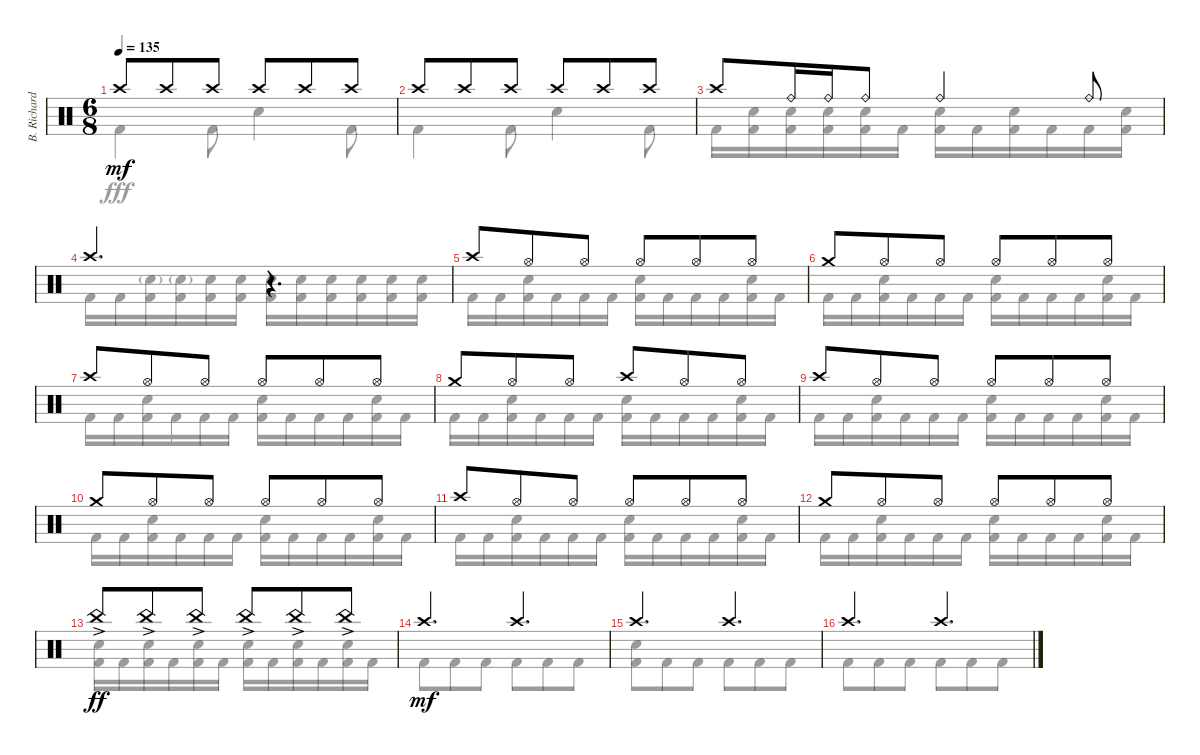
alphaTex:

\track ("B. Richardson Drums" "B. Richard") {instrument percussion}
\staff {score}
\articulation defaults
\voice
\ts (6 8)
\tempo 135
\clef neutral
\ks c "Crash high (hit)".8{dy mf} "Crash high (hit)".8 "Crash high (hit)".8 "Crash high (hit)".8 "Crash high (hit)".8 "Crash high (hit)".8
|
"Crash high (hit)".8 "Crash high (hit)".8 "Crash high (hit)".8 "Crash high (hit)".8 "Crash high (hit)".8 "Crash high (hit)".8 |
"Crash high (hit)".8 "Ride (bell)".16 "Ride (bell)".16 "Ride (bell)".8 "Ride (bell)".4 "Ride (bell)".8 |
"Crash high (hit)".4{d} r.4{d} |
"Crash high (hit)".8 "Hi-Hat (open)".8 "Hi-Hat (open)".8 "Hi-Hat (open)".8 "Hi-Hat (open)".8 "Hi-Hat (open)".8 |
"Crash medium (hit)".8 "Hi-Hat (open)".8 "Hi-Hat (open)".8 "Hi-Hat (open)".8 "Hi-Hat (open)".8 "Hi-Hat (open)".8 |
"Crash high (hit)".8 "Hi-Hat (open)".8 "Hi-Hat (open)".8 "Hi-Hat (open)".8 "Hi-Hat (open)".8 "Hi-Hat (open)".8 |
"Crash medium (hit)".8 "Hi-Hat (open)".8 "Hi-Hat (open)".8 "Crash high (hit)".8 "Hi-Hat (open)".8 "Hi-Hat (open)".8 |
"Crash high (hit)".8 "Hi-Hat (open)".8 "Hi-Hat (open)".8 "Hi-Hat (open)".8 "Hi-Hat (open)".8 "Hi-Hat (open)".8 |
"Crash medium (hit)".8 "Hi-Hat (open)".8 "Hi-Hat (open)".8 "Hi-Hat (open)".8 "Hi-Hat (open)".8 "Hi-Hat (open)".8 |
"Crash high (hit)".8 "Hi-Hat (open)".8 "Hi-Hat (open)".8 "Hi-Hat (open)".8 "Hi-Hat (open)".8 "Hi-Hat (open)".8 |
"Crash medium (hit)".8 "Hi-Hat (open)".8 "Hi-Hat (open)".8 "Hi-Hat (open)".8 "Hi-Hat (open)".8 "Hi-Hat (open)".8 |
"China (hit)"{ac}.8{dy ff} "China (hit)"{ac}.8 "China (hit)"{ac}.8 "China (hit)"{ac}.8 "China (hit)"{ac}.8 "China (hit)"{ac}.8 |
"Crash high (hit)".4{d dy mf} "Crash high (hit)".4{d} |
"Crash high (hit)".4{d} "Crash high (hit)".4{d} |
"Crash high (hit)".4{d} "Crash high (hit)".4{d}
\voice
\clef neutral
\ottava regular
\simile none
\ks c "Kick (hit) 2".4{dy fff} "Kick (hit) 2".8 "Electric Snare (hit)".4 "Kick (hit) 2".8
|
"Kick (hit) 2".4 "Kick (hit) 2".8 "Electric Snare (hit)".4 "Kick (hit) 2".8 |
"Kick (hit) 2".16 ("Electric Snare (hit)" "Kick (hit) 2").16 ("Electric Snare (hit)" "Kick (hit) 2").16 ("Electric Snare (hit)" "Kick (hit) 2").16 ("Electric Snare (hit)" "Kick (hit) 2").16 "Kick (hit) 2".16 ("Electric Snare (hit)" "Kick (hit) 2").16 "Kick (hit) 2".16 ("Electric Snare (hit)" "Kick (hit) 2").16 "Kick (hit) 2".16 "Kick (hit) 2".16 ("Electric Snare (hit)" "Kick (hit) 2").16 |
"Kick (hit) 2".16 "Kick (hit) 2".16 ("Electric Snare (hit)"{g} "Kick (hit) 2").16 ("Electric Snare (hit)"{g} "Kick (hit) 2").16 ("Electric Snare (hit)" "Kick (hit) 2").16 ("Electric Snare (hit)" "Kick (hit) 2").16 ("Electric Snare (hit)" "Kick (hit) 2").16 ("Electric Snare (hit)" "Kick (hit) 2").16 ("Electric Snare (hit)" "Kick (hit) 2").16 ("Electric Snare (hit)" "Kick (hit) 2").16 ("Electric Snare (hit)" "Kick (hit) 2").16 ("Electric Snare (hit)" "Kick (hit) 2").16 |
"Kick (hit) 2".16 "Kick (hit) 2".16 ("Electric Snare (hit)" "Kick (hit) 2").16 "Kick (hit) 2".16 "Kick (hit) 2".16 "Kick (hit) 2".16 ("Electric Snare (hit)" "Kick (hit) 2").16 "Kick (hit) 2".16 "Kick (hit) 2".16 "Kick (hit) 2".16 ("Electric Snare (hit)" "Kick (hit) 2").16 "Kick (hit) 2".16 |
"Kick (hit) 2".16 "Kick (hit) 2".16 ("Electric Snare (hit)" "Kick (hit) 2").16 "Kick (hit) 2".16 "Kick (hit) 2".16 "Kick (hit) 2".16 ("Electric Snare (hit)" "Kick (hit) 2").16 "Kick (hit) 2".16 "Kick (hit) 2".16 "Kick (hit) 2".16 ("Electric Snare (hit)" "Kick (hit) 2").16 "Kick (hit) 2".16 |
"Kick (hit) 2".16 "Kick (hit) 2".16 ("Electric Snare (hit)" "Kick (hit) 2").16 "Kick (hit) 2".16 "Kick (hit) 2".16 "Kick (hit) 2".16 ("Electric Snare (hit)" "Kick (hit) 2").16 "Kick (hit) 2".16 "Kick (hit) 2".16 "Kick (hit) 2".16 ("Electric Snare (hit)" "Kick (hit) 2").16 "Kick (hit) 2".16 |
"Kick (hit) 2".16 "Kick (hit) 2".16 ("Electric Snare (hit)" "Kick (hit) 2").16 "Kick (hit) 2".16 "Kick (hit) 2".16 "Kick (hit) 2".16 ("Electric Snare (hit)" "Kick (hit) 2").16 "Kick (hit) 2".16 "Kick (hit) 2".16 "Kick (hit) 2".16 ("Electric Snare (hit)" "Kick (hit) 2").16 "Kick (hit) 2".16 |
"Kick (hit) 2".16 "Kick (hit) 2".16 ("Electric Snare (hit)" "Kick (hit) 2").16 "Kick (hit) 2".16 "Kick (hit) 2".16 "Kick (hit) 2".16 ("Electric Snare (hit)" "Kick (hit) 2").16 "Kick (hit) 2".16 "Kick (hit) 2".16 "Kick (hit) 2".16 ("Electric Snare (hit)" "Kick (hit) 2").16 "Kick (hit) 2".16 |
"Kick (hit) 2".16 "Kick (hit) 2".16 ("Electric Snare (hit)" "Kick (hit) 2").16 "Kick (hit) 2".16 "Kick (hit) 2".16 "Kick (hit) 2".16 ("Electric Snare (hit)" "Kick (hit) 2").16 "Kick (hit) 2".16 "Kick (hit) 2".16 "Kick (hit) 2".16 ("Electric Snare (hit)" "Kick (hit) 2").16 "Kick (hit) 2".16 |
"Kick (hit) 2".16 "Kick (hit) 2".16 ("Electric Snare (hit)" "Kick (hit) 2").16 "Kick (hit) 2".16 "Kick (hit) 2".16 "Kick (hit) 2".16 ("Electric Snare (hit)" "Kick (hit) 2").16 "Kick (hit) 2".16 "Kick (hit) 2".16 "Kick (hit) 2".16 ("Electric Snare (hit)" "Kick (hit) 2").16 "Kick (hit) 2".16 |
"Kick (hit) 2".16 "Kick (hit) 2".16 ("Electric Snare (hit)" "Kick (hit) 2").16 "Kick (hit) 2".16 "Kick (hit) 2".16 "Kick (hit) 2".16 ("Electric Snare (hit)" "Kick (hit) 2").16 "Kick (hit) 2".16 "Kick (hit) 2".16 "Kick (hit) 2".16 ("Electric Snare (hit)" "Kick (hit) 2").16 "Kick (hit) 2".16 |
("Electric Snare (hit)" "Kick (hit) 2").16 "Kick (hit) 2".16 ("Electric Snare (hit)" "Kick (hit) 2").16 "Kick (hit) 2".16 ("Electric Snare (hit)" "Kick (hit) 2").16 "Kick (hit) 2".16 ("Electric Snare (hit)" "Kick (hit) 2").16 "Kick (hit) 2".16 ("Electric Snare (hit)" "Kick (hit) 2").16 "Kick (hit) 2".16 ("Electric Snare (hit)" "Kick (hit) 2").16 "Kick (hit) 2".16 |
"Kick (hit) 2".8 "Kick (hit) 2".8 "Kick (hit) 2".8 "Kick (hit) 2".8 "Kick (hit) 2".8 "Kick (hit) 2".8 |
("Electric Snare (hit)" "Kick (hit) 2").8 "Kick (hit) 2".8 "Kick (hit) 2".8 "Kick (hit) 2".8 "Kick (hit) 2".8 "Kick (hit) 2".8 |
"Kick (hit) 2".8 "Kick (hit) 2".8 "Kick (hit) 2".8 "Kick (hit) 2".8 "Kick (hit) 2".8 "Kick (hit) 2".8
